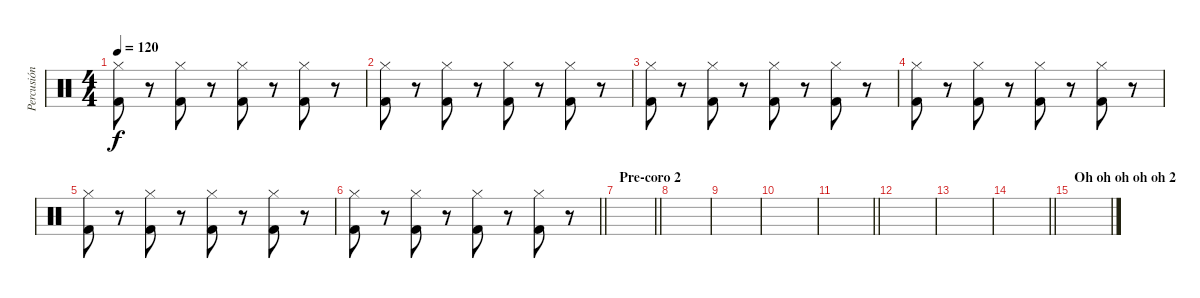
\track ("Percusión" "Percusión") {instrument percussion}
\staff {score}
\articulation defaults
\ts (4 4)
\tempo 120
\clef neutral
\ks c
("Kick (hit) 2" "Hi-Hat (closed)").8{dy f} r.8 ("Kick (hit) 2" "Hi-Hat (closed)").8 r.8 ("Kick (hit) 2" "Hi-Hat (closed)").8 r.8 ("Kick (hit) 2" "Hi-Hat (closed)").8 r.8 |
("Kick (hit) 2" "Hi-Hat (closed)").8 r.8 ("Kick (hit) 2" "Hi-Hat (closed)").8 r.8 ("Kick (hit) 2" "Hi-Hat (closed)").8 r.8 ("Kick (hit) 2" "Hi-Hat (closed)").8 r.8 |
("Kick (hit) 2" "Hi-Hat (closed)").8 r.8 ("Kick (hit) 2" "Hi-Hat (closed)").8 r.8 ("Kick (hit) 2" "Hi-Hat (closed)").8 r.8 ("Kick (hit) 2" "Hi-Hat (closed)").8 r.8 |
("Kick (hit) 2" "Hi-Hat (closed)").8 r.8 ("Kick (hit) 2" "Hi-Hat (closed)").8 r.8 ("Kick (hit) 2" "Hi-Hat (closed)").8 r.8 ("Kick (hit) 2" "Hi-Hat (closed)").8 r.8 |
("Kick (hit) 2" "Hi-Hat (closed)").8 r.8 ("Kick (hit) 2" "Hi-Hat (closed)").8 r.8 ("Kick (hit) 2" "Hi-Hat (closed)").8 r.8 ("Kick (hit) 2" "Hi-Hat (closed)").8 r.8 |
\barLineRight lightlight
("Kick (hit) 2" "Hi-Hat (closed)").8 r.8 ("Kick (hit) 2" "Hi-Hat (closed)").8 r.8 ("Kick (hit) 2" "Hi-Hat (closed)").8 r.8 ("Kick (hit) 2" "Hi-Hat (closed)").8 r.8 |
\section ("" "Pre-coro 2")
\barLineRight lightlight
|
|
|
|
\barLineRight lightlight
|
|
|
\barLineRight lightlight
|
\section ("" "Oh oh oh oh oh 2")
